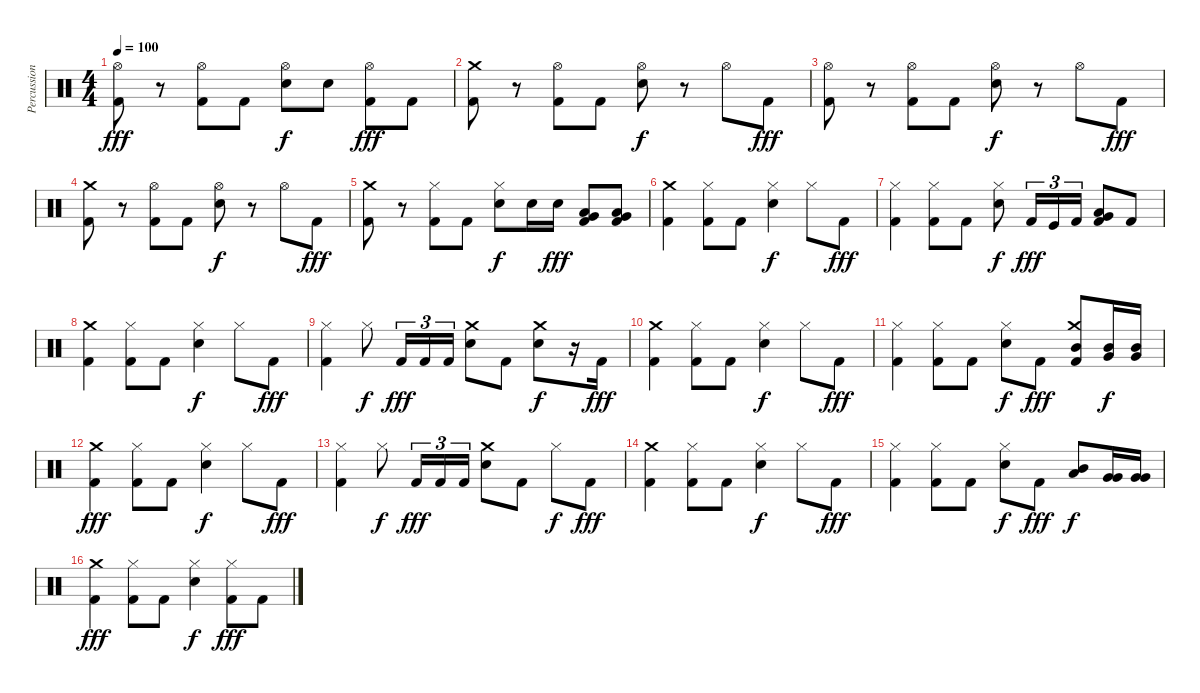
\track ("Percussion" "Percussion") {instrument percussion}
\staff {score}
\articulation defaults
\ts (4 4)
\tempo 100
\clef neutral
\ks c
("Hi-Hat (open)" "Kick (hit) 2").8{dy fff} r.8 ("Hi-Hat (open)" "Kick (hit) 2").8 "Kick (hit) 2".8 ("Hi-Hat (open)" "Snare (hit) 2").8{dy f} "Snare (hit) 2".8 ("Hi-Hat (open)" "Kick (hit) 2").8{dy fff} "Kick (hit) 2".8 |
("Crash medium (hit)" "Kick (hit) 2").8 r.8 ("Hi-Hat (open)" "Kick (hit) 2").8 "Kick (hit) 2".8 ("Hi-Hat (open)" "Snare (hit) 2").8{dy f} r.8 "Hi-Hat (open)".8 "Kick (hit) 2".8{dy fff} |
("Hi-Hat (open)" "Kick (hit) 2").8 r.8 ("Hi-Hat (open)" "Kick (hit) 2").8 "Kick (hit) 2".8 ("Hi-Hat (open)" "Snare (hit) 2").8{dy f} r.8 "Hi-Hat (open)".8 "Kick (hit) 2".8{dy fff} |
("Crash medium (hit)" "Kick (hit) 2").8 r.8 ("Hi-Hat (open)" "Kick (hit) 2").8 "Kick (hit) 2".8 ("Hi-Hat (open)" "Snare (hit) 2").8{dy f} r.8 "Hi-Hat (open)".8 "Kick (hit) 2".8{dy fff} |
("Crash medium (hit)" "Kick (hit) 2").8 r.8 ("Hi-Hat (closed)" "Kick (hit) 2").8 "Kick (hit) 2".8 ("Hi-Hat (closed)" "Snare (hit) 2").8{dy f} "Snare (hit) 2".16 "Snare (hit) 2".16{dy fff} ("Very Low Tom (hit)" "Low Tom (hit)" "Kick (hit) 2").8 ("Very Low Tom (hit)" "Low Tom (hit)" "Kick (hit) 2").8 |
("Crash medium (hit)" "Kick (hit) 2").4 ("Hi-Hat (closed)" "Kick (hit) 2").8 "Kick (hit) 2".8 ("Hi-Hat (closed)" "Snare (hit) 2").4{dy f} "Hi-Hat (closed)".8 "Kick (hit) 2".8{dy fff} |
("Hi-Hat (closed)" "Kick (hit) 2").4 ("Hi-Hat (closed)" "Kick (hit) 2").8 "Kick (hit) 2".8 ("Hi-Hat (closed)" "Snare (hit) 2").8{dy f} "Kick (hit) 2".16{tu (3 2) dy fff} "Kick (hit)".16{tu (3 2)} "Kick (hit) 2".16{tu (3 2)} ("Very Low Tom (hit)" "Low Tom (hit)" "Kick (hit) 2").8 "Kick (hit) 2".8 |
("Crash medium (hit)" "Kick (hit) 2").4 ("Hi-Hat (closed)" "Kick (hit) 2").8 "Kick (hit) 2".8 ("Hi-Hat (closed)" "Snare (hit) 2").4{dy f} "Hi-Hat (closed)".8 "Kick (hit) 2".8{dy fff} |
("Hi-Hat (closed)" "Kick (hit) 2").4 "Hi-Hat (closed)".8{dy f} "Kick (hit) 2".16{tu (3 2) dy fff} "Kick (hit) 2".16{tu (3 2)} "Kick (hit) 2".16{tu (3 2)} ("Crash medium (hit)" "Snare (hit) 2").8 "Kick (hit) 2".8 ("Crash medium (hit)" "Snare (hit) 2").8{dy f} r.16 "Kick (hit) 2".16{dy fff} |
("Crash medium (hit)" "Kick (hit) 2").4 ("Hi-Hat (closed)" "Kick (hit) 2").8 "Kick (hit) 2".8 ("Hi-Hat (closed)" "Snare (hit) 2").4{dy f} "Hi-Hat (closed)".8 "Kick (hit) 2".8{dy fff} |
("Hi-Hat (closed)" "Kick (hit) 2").4 ("Hi-Hat (closed)" "Kick (hit) 2").8 "Kick (hit) 2".8 ("Hi-Hat (closed)" "Snare (hit) 2").8{dy f} "Kick (hit) 2".8{dy fff} ("Crash medium (hit)" "Mid Tom (hit)" "Kick (hit) 2").8 ("Mid Tom (hit)" "Very Low Tom (hit)").16{dy f} ("Mid Tom (hit)" "Very Low Tom (hit)").16 |
("Crash medium (hit)" "Kick (hit) 2").4{dy fff} ("Hi-Hat (closed)" "Kick (hit) 2").8 "Kick (hit) 2".8 ("Hi-Hat (closed)" "Snare (hit) 2").4{dy f} "Hi-Hat (closed)".8 "Kick (hit) 2".8{dy fff} |
("Hi-Hat (closed)" "Kick (hit) 2").4 "Hi-Hat (closed)".8{dy f} "Kick (hit) 2".16{tu (3 2) dy fff} "Kick (hit) 2".16{tu (3 2)} "Kick (hit) 2".16{tu (3 2)} ("Crash medium (hit)" "Snare (hit) 2").8 "Kick (hit) 2".8 "Hi-Hat (closed)".8{dy f} "Kick (hit) 2".8{dy fff} |
("Crash medium (hit)" "Kick (hit) 2").4 ("Hi-Hat (closed)" "Kick (hit) 2").8 "Kick (hit) 2".8 ("Hi-Hat (closed)" "Snare (hit) 2").4{dy f} "Hi-Hat (closed)".8 "Kick (hit) 2".8{dy fff} |
("Hi-Hat (closed)" "Kick (hit) 2").4 ("Hi-Hat (closed)" "Kick (hit) 2").8 "Kick (hit) 2".8 ("Hi-Hat (closed)" "Snare (hit) 2").8{dy f} "Kick (hit) 2".8{dy fff} ("Low Tom (hit)" "Mid Tom (hit)").8{dy f} ("Very Low Tom (hit)" "Very Low Tom (hit)").16 ("Very Low Tom (hit)" "Very Low Tom (hit)").16 |
("Crash medium (hit)" "Kick (hit) 2").4{dy fff} ("Hi-Hat (closed)" "Kick (hit) 2").8 "Kick (hit) 2".8 ("Hi-Hat (closed)" "Snare (hit) 2").4{dy f} ("Hi-Hat (closed)" "Kick (hit) 2").8{dy fff} "Kick (hit) 2".8
